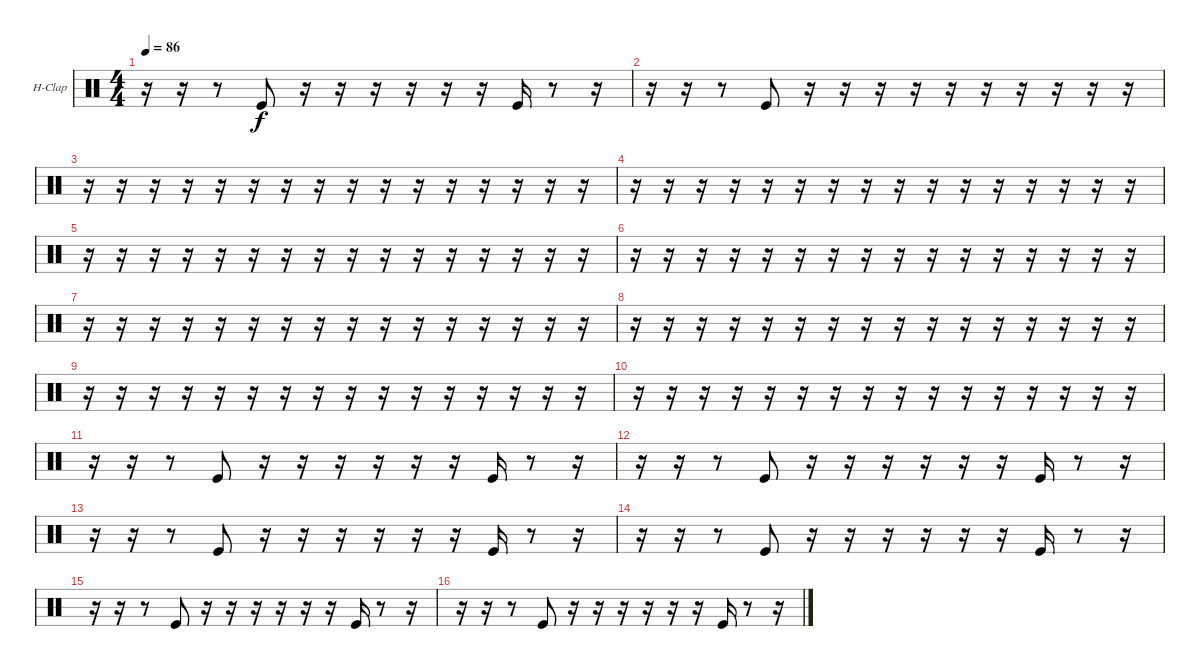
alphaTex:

\defaultSystemsLayout 4
\bracketExtendMode groupsimilarinstruments
\firstSystemTrackNameOrientation horizontal
\otherSystemsTrackNameOrientation horizontal
\track ("Hand Clap" "H-Clap") {instrument percussion}
\staff {score}
\articulation defaults
\ts (4 4)
\tempo 86
\clef neutral
\scale
0.333333
\ks c
r.16{dy f} r.16 r.8 "Kick (hit)".8 r.16 r.16 r.16 r.16 r.16 r.16 "Kick (hit)".16 r.8 r.16 |
\scale
0.333333 r.16 r.16 r.8 "Kick (hit)".8 r.16 r.16 r.16 r.16 r.16 r.16 r.16 r.16 r.16 r.16 |
\scale
0.333333 r.16 r.16 r.16 r.16 r.16 r.16 r.16 r.16 r.16 r.16 r.16 r.16 r.16 r.16 r.16 r.16 |
\scale
0.333333 r.16 r.16 r.16 r.16 r.16 r.16 r.16 r.16 r.16 r.16 r.16 r.16 r.16 r.16 r.16 r.16 |
\scale
0.333333 r.16 r.16 r.16 r.16 r.16 r.16 r.16 r.16 r.16 r.16 r.16 r.16 r.16 r.16 r.16 r.16 |
\scale
0.333333 r.16 r.16 r.16 r.16 r.16 r.16 r.16 r.16 r.16 r.16 r.16 r.16 r.16 r.16 r.16 r.16 |
\scale
0.333333 r.16 r.16 r.16 r.16 r.16 r.16 r.16 r.16 r.16 r.16 r.16 r.16 r.16 r.16 r.16 r.16 |
\scale
0.333333 r.16 r.16 r.16 r.16 r.16 r.16 r.16 r.16 r.16 r.16 r.16 r.16 r.16 r.16 r.16 r.16 |
\scale
0.333333 r.16 r.16 r.16 r.16 r.16 r.16 r.16 r.16 r.16 r.16 r.16 r.16 r.16 r.16 r.16 r.16 |
\scale
0.333333 r.16 r.16 r.16 r.16 r.16 r.16 r.16 r.16 r.16 r.16 r.16 r.16 r.16 r.16 r.16 r.16 |
\scale
0.333333 r.16 r.16 r.8 "Kick (hit)".8 r.16 r.16 r.16 r.16 r.16 r.16 "Kick (hit)".16 r.8 r.16 |
\scale
0.333333 r.16 r.16 r.8 "Kick (hit)".8 r.16 r.16 r.16 r.16 r.16 r.16 "Kick (hit)".16 r.8 r.16 |
\scale
0.333333 r.16 r.16 r.8 "Kick (hit)".8 r.16 r.16 r.16 r.16 r.16 r.16 "Kick (hit)".16 r.8 r.16 |
\scale
0.333333 r.16 r.16 r.8 "Kick (hit)".8 r.16 r.16 r.16 r.16 r.16 r.16 "Kick (hit)".16 r.8 r.16 |
\scale
0.333333 r.16 r.16 r.8 "Kick (hit)".8 r.16 r.16 r.16 r.16 r.16 r.16 "Kick (hit)".16 r.8 r.16 |
\scale
0.333333 r.16 r.16 r.8 "Kick (hit)".8 r.16 r.16 r.16 r.16 r.16 r.16 "Kick (hit)".16 r.8 r.16
